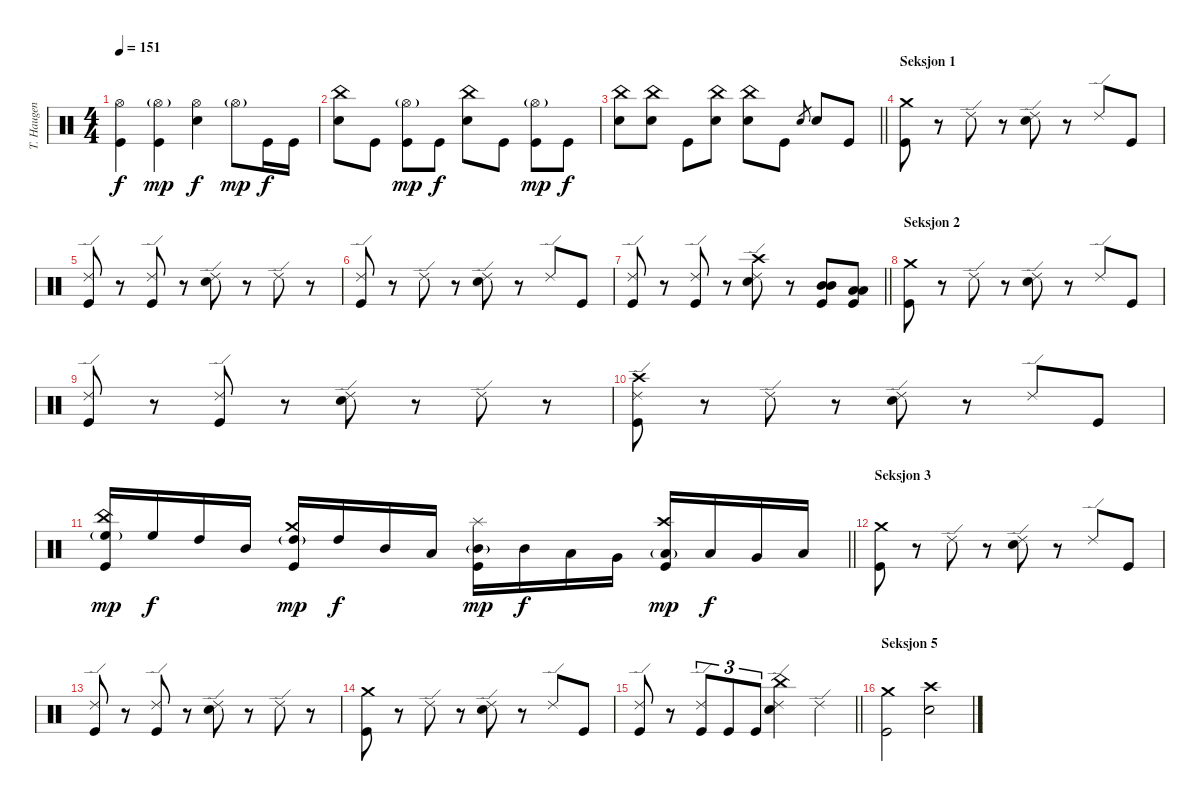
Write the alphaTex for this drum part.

\track ("T. Haugen" "T. Haugen") {instrument percussion}
\staff {score}
\articulation defaults
\ts (4 4)
\tempo 151
\clef neutral
\ks c
("Hi-Hat (open)" "Kick (hit)").4{dy f} ("Hi-Hat (open)"{g} "Kick (hit)").4{dy mp} ("Hi-Hat (open)" "Electric Snare (hit)").4{dy f} "Hi-Hat (open)"{g}.8{dy mp} "Kick (hit)".16{dy f} "Kick (hit)".16 |
("China (hit)" "Electric Snare (hit)").8 "Kick (hit)".8 ("Hi-Hat (open)"{g} "Kick (hit)").8{dy mp} "Kick (hit)".8{dy f} ("China (hit)" "Electric Snare (hit)").8 "Kick (hit)".8 ("Hi-Hat (open)"{g} "Kick (hit)").8{dy mp} "Kick (hit)".8{dy f} |
\barLineRight lightlight
("China (hit)" "Electric Snare (hit)").8 ("China (hit)" "Electric Snare (hit)").8 "Kick (hit)".8 ("China (hit)" "Electric Snare (hit)").8 ("China (hit)" "Electric Snare (hit)").8 "Kick (hit)".8 "Electric Snare (hit)".8{gr} "Electric Snare (hit)".8 "Kick (hit)".8 |
\section ("" "Seksjon 1")
("Crash medium (hit)" "Kick (hit)").8 r.8 "Ride (edge) 2".8 r.8 ("Ride (edge) 2" "Electric Snare (hit)").8 r.8 "Ride (edge) 2".8 "Kick (hit)".8 |
("Ride (edge) 2" "Kick (hit)").8 r.8 ("Ride (edge) 2" "Kick (hit)").8 r.8 ("Ride (edge) 2" "Electric Snare (hit)").8 r.8 "Ride (edge) 2".8 r.8 |
("Ride (edge) 2" "Kick (hit)").8 r.8 "Ride (edge) 2".8 r.8 ("Ride (edge) 2" "Electric Snare (hit)").8 r.8 "Ride (edge) 2".8 "Kick (hit)".8 |
\barLineRight lightlight
("Ride (edge) 2" "Kick (hit)").8 r.8 ("Ride (edge) 2" "Kick (hit)").8 r.8 ("Crash high (hit)" "Ride (edge) 2" "Electric Snare (hit)").8 r.8 ("Mid Tom (hit)" "Mid Tom (hit)" "Kick (hit)").8 ("Low Tom (hit)" "Low Tom (hit)" "Kick (hit)").8 |
\section ("" "Seksjon 2")
("Crash medium (hit)" "Kick (hit)").8 r.8 "Ride (edge) 2".8 r.8 ("Ride (edge) 2" "Electric Snare (hit)").8 r.8 "Ride (edge) 2".8 "Kick (hit)".8 |
("Ride (edge) 2" "Kick (hit)").8 r.8 ("Ride (edge) 2" "Kick (hit)").8 r.8 ("Ride (edge) 2" "Electric Snare (hit)").8 r.8 "Ride (edge) 2".8 r.8 |
("Crash high (hit)" "Ride (edge) 2" "Kick (hit)").8 r.8 "Ride (edge) 2".8 r.8 ("Ride (edge) 2" "Electric Snare (hit)").8 r.8 "Ride (edge) 2".8 "Kick (hit)".8 |
\barLineRight lightlight
("China (hit)" "High Floor Tom (hit)"{g} "Kick (hit)").16{dy mp} "High Floor Tom (hit)".16{dy f} "High Tom (hit)".16 "Mid Tom (hit)".16 ("Crash medium (hit)" "High Tom (hit)"{g} "Kick (hit)").16{dy mp} "High Tom (hit)".16{dy f} "Mid Tom (hit)".16 "Low Tom (hit)".16 ("Splash (hit)" "Mid Tom (hit)"{g} "Kick (hit)").16{dy mp} "Mid Tom (hit)".16{dy f} "Low Tom (hit)".16 "Very Low Tom (hit)".16 ("Crash high (hit)" "Low Tom (hit)"{g} "Kick (hit)").16{dy mp} "Low Tom (hit)".16{dy f} "Very Low Tom (hit)".16 "Low Floor Tom (hit)".16 |
\section ("" "Seksjon 3")
("Crash medium (hit)" "Kick (hit)").8 r.8 "Ride (edge) 2".8 r.8 ("Ride (edge) 2" "Electric Snare (hit)").8 r.8 "Ride (edge) 2".8 "Kick (hit)".8 |
("Ride (edge) 2" "Kick (hit)").8 r.8 ("Ride (edge) 2" "Kick (hit)").8 r.8 ("Ride (edge) 2" "Electric Snare (hit)").8 r.8 "Ride (edge) 2".8 r.8 |
("Crash medium (hit)" "Kick (hit)").8 r.8 "Ride (edge) 2".8 r.8 ("Ride (edge) 2" "Electric Snare (hit)").8 r.8 "Ride (edge) 2".8 "Kick (hit)".8 |
\barLineRight lightlight
("Ride (edge) 2" "Kick (hit)").8 r.8 ("Ride (edge) 2" "Kick (hit)").8{tu (3 2)} "Kick (hit)".8{tu (3 2)} "Kick (hit)".8{tu (3 2)} ("China (hit)" "Ride (edge) 2" "Electric Snare (hit)").4 "Ride (edge) 2".4 |
\section ("" "Seksjon 5")
("Crash medium (hit)" "Kick (hit)").2 ("Crash high (hit)" "Electric Snare (hit)").2
